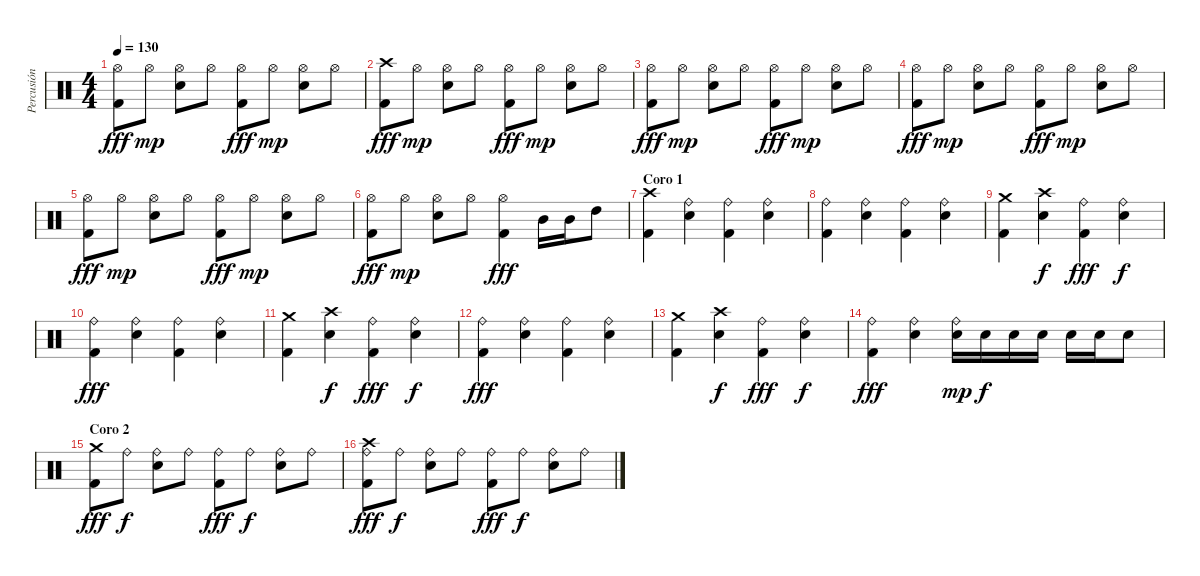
\track ("Percusión" "Percusión") {instrument percussion}
\staff {score}
\articulation defaults
\ts (4 4)
\tempo 130
\clef neutral
\ks c
("Hi-Hat (open)" "Kick (hit) 2").8{dy fff} "Hi-Hat (open)".8{dy mp} ("Hi-Hat (open)" "Snare (hit) 2").8 "Hi-Hat (open)".8 ("Hi-Hat (open)" "Kick (hit) 2").8{dy fff} "Hi-Hat (open)".8{dy mp} ("Hi-Hat (open)" "Snare (hit) 2").8 "Hi-Hat (open)".8 |
("Crash high (hit)" "Kick (hit) 2").8{dy fff} "Hi-Hat (open)".8{dy mp} ("Hi-Hat (open)" "Snare (hit) 2").8 "Hi-Hat (open)".8 ("Hi-Hat (open)" "Kick (hit) 2").8{dy fff} "Hi-Hat (open)".8{dy mp} ("Hi-Hat (open)" "Snare (hit) 2").8 "Hi-Hat (open)".8 |
("Hi-Hat (open)" "Kick (hit) 2").8{dy fff} "Hi-Hat (open)".8{dy mp} ("Hi-Hat (open)" "Snare (hit) 2").8 "Hi-Hat (open)".8 ("Hi-Hat (open)" "Kick (hit) 2").8{dy fff} "Hi-Hat (open)".8{dy mp} ("Hi-Hat (open)" "Snare (hit) 2").8 "Hi-Hat (open)".8 |
("Hi-Hat (open)" "Kick (hit) 2").8{dy fff} "Hi-Hat (open)".8{dy mp} ("Hi-Hat (open)" "Snare (hit) 2").8 "Hi-Hat (open)".8 ("Hi-Hat (open)" "Kick (hit) 2").8{dy fff} "Hi-Hat (open)".8{dy mp} ("Hi-Hat (open)" "Snare (hit) 2").8 "Hi-Hat (open)".8 |
("Hi-Hat (open)" "Kick (hit) 2").8{dy fff} "Hi-Hat (open)".8{dy mp} ("Hi-Hat (open)" "Snare (hit) 2").8 "Hi-Hat (open)".8 ("Hi-Hat (open)" "Kick (hit) 2").8{dy fff} "Hi-Hat (open)".8{dy mp} ("Hi-Hat (open)" "Snare (hit) 2").8 "Hi-Hat (open)".8 |
("Hi-Hat (open)" "Kick (hit) 2").8{dy fff} "Hi-Hat (open)".8{dy mp} ("Hi-Hat (open)" "Snare (hit) 2").8 "Hi-Hat (open)".8 ("Hi-Hat (open)" "Kick (hit) 2").4{dy fff} "Mid Tom (hit)".16 "Mid Tom (hit)".16 "High Tom (hit)".8 |
\section ("" "Coro 1")
("Crash high (hit)" "Kick (hit) 2").4 ("Ride (bell)" "Snare (hit) 2").4 ("Ride (bell)" "Kick (hit) 2").4 ("Ride (bell)" "Snare (hit) 2").4 |
("Ride (bell)" "Kick (hit) 2").4 ("Ride (bell)" "Snare (hit) 2").4 ("Ride (bell)" "Kick (hit) 2").4 ("Ride (bell)" "Snare (hit) 2").4 |
("Crash medium (hit)" "Kick (hit) 2").4 ("Crash high (hit)" "Snare (hit) 2").4{dy f} ("Ride (bell)" "Kick (hit) 2").4{dy fff} ("Ride (bell)" "Snare (hit) 2").4{dy f} |
("Ride (bell)" "Kick (hit) 2").4{dy fff} ("Ride (bell)" "Snare (hit) 2").4 ("Ride (bell)" "Kick (hit) 2").4 ("Ride (bell)" "Snare (hit) 2").4 |
("Crash medium (hit)" "Kick (hit) 2").4 ("Crash high (hit)" "Snare (hit) 2").4{dy f} ("Ride (bell)" "Kick (hit) 2").4{dy fff} ("Ride (bell)" "Snare (hit) 2").4{dy f} |
("Ride (bell)" "Kick (hit) 2").4{dy fff} ("Ride (bell)" "Snare (hit) 2").4 ("Ride (bell)" "Kick (hit) 2").4 ("Ride (bell)" "Snare (hit) 2").4 |
("Crash medium (hit)" "Kick (hit) 2").4 ("Crash high (hit)" "Snare (hit) 2").4{dy f} ("Ride (bell)" "Kick (hit) 2").4{dy fff} ("Ride (bell)" "Snare (hit) 2").4{dy f} |
("Ride (bell)" "Kick (hit) 2").4{dy fff} ("Ride (bell)" "Snare (hit) 2").4 ("Ride (bell)" "Snare (hit) 2").16{dy mp} "Snare (hit) 2".16{dy f} "Snare (hit) 2".16 "Snare (hit) 2".16 "Snare (hit) 2".16 "Snare (hit) 2".16 "Snare (hit) 2".8 |
\section ("" "Coro 2")
("Crash medium (hit)" "Kick (hit) 2").8{dy fff} "Ride (bell)".8{dy f} ("Ride (bell)" "Snare (hit) 2").8 "Ride (bell)".8 ("Ride (bell)" "Kick (hit) 2").8{dy fff} "Ride (bell)".8{dy f} ("Ride (bell)" "Snare (hit) 2").8 "Ride (bell)".8 |
("Ride (bell)" "Kick (hit) 2" "Crash high (hit)").8{dy fff} "Ride (bell)".8{dy f} ("Ride (bell)" "Snare (hit) 2").8 "Ride (bell)".8 ("Ride (bell)" "Kick (hit) 2").8{dy fff} "Ride (bell)".8{dy f} ("Ride (bell)" "Snare (hit) 2").8 "Ride (bell)".8
